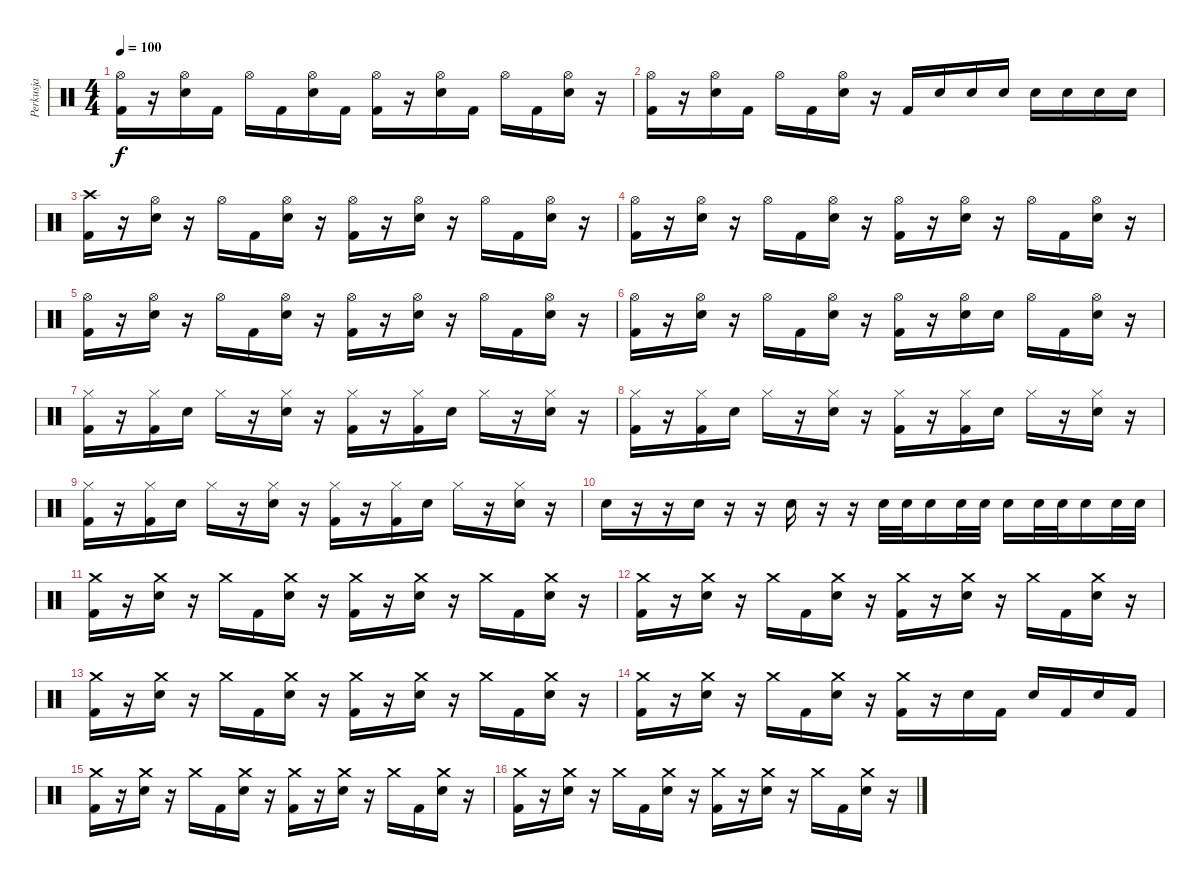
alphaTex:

\track ("Perkusja" "Perkusja") {instrument percussion}
\staff {score}
\articulation defaults
\ts (4 4)
\tempo 100
\clef neutral
\ks c
("Hi-Hat (open)" "Kick (hit) 2").16{dy f} r.16 ("Hi-Hat (open)" "Electric Snare (hit)").16 "Kick (hit) 2".16 "Hi-Hat (open)".16 "Kick (hit) 2".16 ("Hi-Hat (open)" "Electric Snare (hit)").16 "Kick (hit) 2".16 ("Hi-Hat (open)" "Kick (hit) 2").16 r.16 ("Hi-Hat (open)" "Electric Snare (hit)").16 "Kick (hit) 2".16 "Hi-Hat (open)".16 "Kick (hit) 2".16 ("Hi-Hat (open)" "Electric Snare (hit)").16 r.16 |
("Hi-Hat (open)" "Kick (hit) 2").16 r.16 ("Hi-Hat (open)" "Electric Snare (hit)").16 "Kick (hit) 2".16 "Hi-Hat (open)".16 "Kick (hit) 2".16 ("Hi-Hat (open)" "Electric Snare (hit)").16 r.16 "Kick (hit) 2".16 "Electric Snare (hit)".16 "Electric Snare (hit)".16 "Electric Snare (hit)".16 "Electric Snare (hit)".16 "Electric Snare (hit)".16 "Electric Snare (hit)".16 "Electric Snare (hit)".16 |
("Crash high (hit)" "Kick (hit) 2").16 r.16 ("Hi-Hat (open)" "Electric Snare (hit)").16 r.16 "Hi-Hat (open)".16 "Kick (hit) 2".16 ("Hi-Hat (open)" "Electric Snare (hit)").16 r.16 ("Hi-Hat (open)" "Kick (hit) 2").16 r.16 ("Hi-Hat (open)" "Electric Snare (hit)").16 r.16 "Hi-Hat (open)".16 "Kick (hit) 2".16 ("Hi-Hat (open)" "Electric Snare (hit)").16 r.16 |
("Hi-Hat (open)" "Kick (hit) 2").16 r.16 ("Hi-Hat (open)" "Electric Snare (hit)").16 r.16 "Hi-Hat (open)".16 "Kick (hit) 2".16 ("Hi-Hat (open)" "Electric Snare (hit)").16 r.16 ("Hi-Hat (open)" "Kick (hit) 2").16 r.16 ("Hi-Hat (open)" "Electric Snare (hit)").16 r.16 "Hi-Hat (open)".16 "Kick (hit) 2".16 ("Hi-Hat (open)" "Electric Snare (hit)").16 r.16 |
("Hi-Hat (open)" "Kick (hit) 2").16 r.16 ("Hi-Hat (open)" "Electric Snare (hit)").16 r.16 "Hi-Hat (open)".16 "Kick (hit) 2".16 ("Hi-Hat (open)" "Electric Snare (hit)").16 r.16 ("Hi-Hat (open)" "Kick (hit) 2").16 r.16 ("Hi-Hat (open)" "Electric Snare (hit)").16 r.16 "Hi-Hat (open)".16 "Kick (hit) 2".16 ("Hi-Hat (open)" "Electric Snare (hit)").16 r.16 |
("Hi-Hat (open)" "Kick (hit) 2").16 r.16 ("Hi-Hat (open)" "Electric Snare (hit)").16 r.16 "Hi-Hat (open)".16 "Kick (hit) 2".16 ("Hi-Hat (open)" "Electric Snare (hit)").16 r.16 ("Hi-Hat (open)" "Kick (hit) 2").16 r.16 ("Hi-Hat (open)" "Electric Snare (hit)").16 "Electric Snare (hit)".16 "Hi-Hat (open)".16 "Kick (hit) 2".16 ("Hi-Hat (open)" "Electric Snare (hit)").16 r.16 |
("Hi-Hat (closed)" "Kick (hit) 2").16 r.16 ("Hi-Hat (closed)" "Kick (hit) 2").16 "Electric Snare (hit)".16 "Hi-Hat (closed)".16 r.16 ("Hi-Hat (closed)" "Electric Snare (hit)").16 r.16 ("Hi-Hat (closed)" "Kick (hit) 2").16 r.16 ("Hi-Hat (closed)" "Kick (hit) 2").16 "Electric Snare (hit)".16 "Hi-Hat (closed)".16 r.16 ("Hi-Hat (closed)" "Electric Snare (hit)").16 r.16 |
("Hi-Hat (closed)" "Kick (hit) 2").16 r.16 ("Hi-Hat (closed)" "Kick (hit) 2").16 "Electric Snare (hit)".16 "Hi-Hat (closed)".16 r.16 ("Hi-Hat (closed)" "Electric Snare (hit)").16 r.16 ("Hi-Hat (closed)" "Kick (hit) 2").16 r.16 ("Hi-Hat (closed)" "Kick (hit) 2").16 "Electric Snare (hit)".16 "Hi-Hat (closed)".16 r.16 ("Hi-Hat (closed)" "Electric Snare (hit)").16 r.16 |
("Hi-Hat (closed)" "Kick (hit) 2").16 r.16 ("Hi-Hat (closed)" "Kick (hit) 2").16 "Electric Snare (hit)".16 "Hi-Hat (closed)".16 r.16 ("Hi-Hat (closed)" "Electric Snare (hit)").16 r.16 ("Hi-Hat (closed)" "Kick (hit) 2").16 r.16 ("Hi-Hat (closed)" "Kick (hit) 2").16 "Electric Snare (hit)".16 "Hi-Hat (closed)".16 r.16 ("Hi-Hat (closed)" "Electric Snare (hit)").16 r.16 |
"Electric Snare (hit)".16 r.16 r.16 "Electric Snare (hit)".16 r.16 r.16 "Electric Snare (hit)".16 r.16 r.16 "Electric Snare (hit)".32 "Electric Snare (hit)".32 "Electric Snare (hit)".16 "Electric Snare (hit)".32 "Electric Snare (hit)".32 "Electric Snare (hit)".16 "Electric Snare (hit)".32 "Electric Snare (hit)".32 "Electric Snare (hit)".16 "Electric Snare (hit)".32 "Electric Snare (hit)".32 |
("Crash medium (hit)" "Kick (hit) 2").16 r.16 ("Crash medium (hit)" "Electric Snare (hit)").16 r.16 "Crash medium (hit)".16 "Kick (hit) 2".16 ("Crash medium (hit)" "Electric Snare (hit)").16 r.16 ("Crash medium (hit)" "Kick (hit) 2").16 r.16 ("Crash medium (hit)" "Electric Snare (hit)").16 r.16 "Crash medium (hit)".16 "Kick (hit) 2".16 ("Crash medium (hit)" "Electric Snare (hit)").16 r.16 |
("Crash medium (hit)" "Kick (hit) 2").16 r.16 ("Crash medium (hit)" "Electric Snare (hit)").16 r.16 "Crash medium (hit)".16 "Kick (hit) 2".16 ("Crash medium (hit)" "Electric Snare (hit)").16 r.16 ("Crash medium (hit)" "Kick (hit) 2").16 r.16 ("Crash medium (hit)" "Electric Snare (hit)").16 r.16 "Crash medium (hit)".16 "Kick (hit) 2".16 ("Crash medium (hit)" "Electric Snare (hit)").16 r.16 |
("Crash medium (hit)" "Kick (hit) 2").16 r.16 ("Crash medium (hit)" "Electric Snare (hit)").16 r.16 "Crash medium (hit)".16 "Kick (hit) 2".16 ("Crash medium (hit)" "Electric Snare (hit)").16 r.16 ("Crash medium (hit)" "Kick (hit) 2").16 r.16 ("Crash medium (hit)" "Electric Snare (hit)").16 r.16 "Crash medium (hit)".16 "Kick (hit) 2".16 ("Crash medium (hit)" "Electric Snare (hit)").16 r.16 |
("Crash medium (hit)" "Kick (hit) 2").16 r.16 ("Crash medium (hit)" "Electric Snare (hit)").16 r.16 "Crash medium (hit)".16 "Kick (hit) 2".16 ("Crash medium (hit)" "Electric Snare (hit)").16 r.16 ("Crash medium (hit)" "Kick (hit) 2").16 r.16 "Electric Snare (hit)".16 "Kick (hit) 2".16 "Electric Snare (hit)".16 "Kick (hit) 2".16 "Electric Snare (hit)".16 "Kick (hit) 2".16 |
("Crash medium (hit)" "Kick (hit) 2").16 r.16 ("Crash medium (hit)" "Electric Snare (hit)").16 r.16 "Crash medium (hit)".16 "Kick (hit) 2".16 ("Crash medium (hit)" "Electric Snare (hit)").16 r.16 ("Crash medium (hit)" "Kick (hit) 2").16 r.16 ("Crash medium (hit)" "Electric Snare (hit)").16 r.16 "Crash medium (hit)".16 "Kick (hit) 2".16 ("Crash medium (hit)" "Electric Snare (hit)").16 r.16 |
("Crash medium (hit)" "Kick (hit) 2").16 r.16 ("Crash medium (hit)" "Electric Snare (hit)").16 r.16 "Crash medium (hit)".16 "Kick (hit) 2".16 ("Crash medium (hit)" "Electric Snare (hit)").16 r.16 ("Crash medium (hit)" "Kick (hit) 2").16 r.16 ("Crash medium (hit)" "Electric Snare (hit)").16 r.16 "Crash medium (hit)".16 "Kick (hit) 2".16 ("Crash medium (hit)" "Electric Snare (hit)").16 r.16
